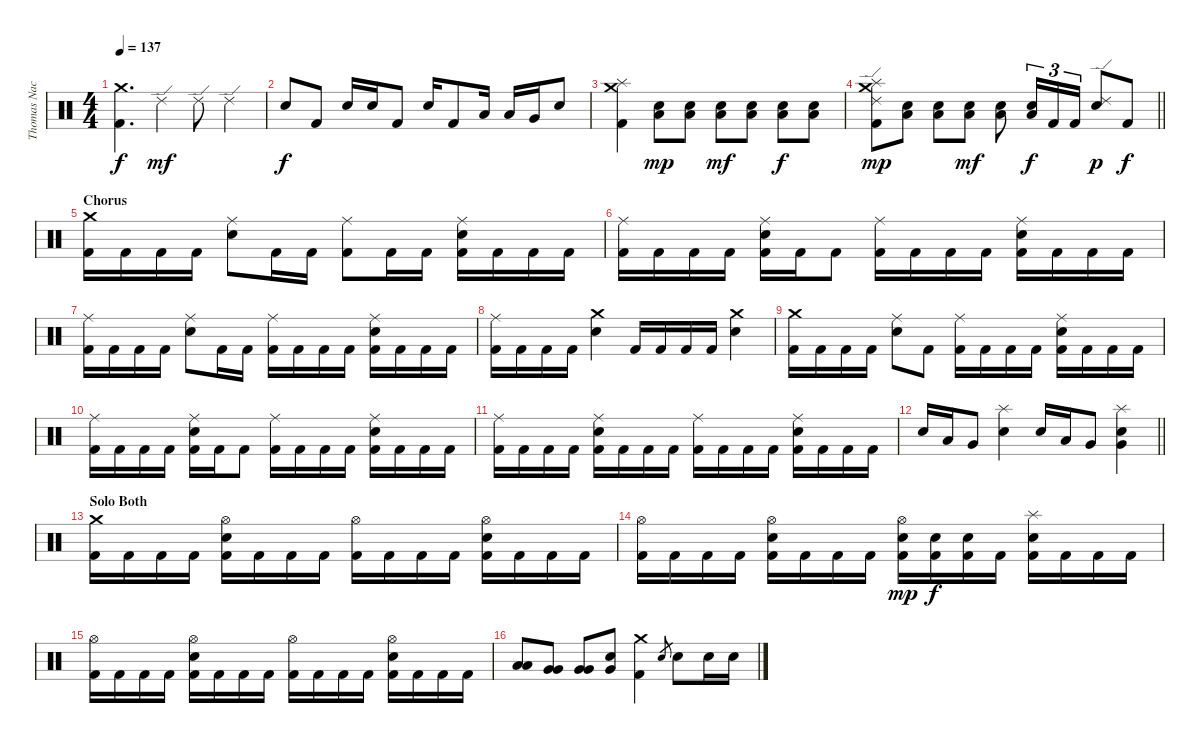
\track ("Thomas Nack" "Thomas Nac") {instrument percussion}
\staff {score}
\articulation defaults
\ts (4 4)
\tempo 137
\clef neutral
\ks c
("Crash medium (hit)" "Kick (hit) 2").4{d dy f} "Ride (edge) 2".4{dy mf} "Ride (edge) 2".8 "Ride (edge) 2".4 |
"Electric Snare (hit)".8{dy f} "Kick (hit) 2".8 "Electric Snare (hit)".16 "Electric Snare (hit)".16 "Kick (hit) 2".8 "Electric Snare (hit)".16 "Kick (hit) 2".8 "Low Tom (hit)".16 "Low Tom (hit)".16 "Very Low Tom (hit)".16 "Electric Snare (hit)".8 |
("Crash medium (hit)" "Splash (hit)" "Kick (hit) 2").4 ("Electric Snare (hit)" "Low Floor Tom (hit)").8{dy mp} ("Electric Snare (hit)" "Low Floor Tom (hit)").8 ("Electric Snare (hit)" "Low Floor Tom (hit)").8{dy mf} ("Electric Snare (hit)" "Low Floor Tom (hit)").8 ("Electric Snare (hit)" "Low Floor Tom (hit)").8{dy f} ("Electric Snare (hit)" "Low Floor Tom (hit)").8 |
\barLineRight lightlight
("Crash medium (hit)" "Splash (hit)" "Ride (edge) 2" "Kick (hit) 2").8{dy mp} ("Electric Snare (hit)" "Low Floor Tom (hit)").8 ("Electric Snare (hit)" "Low Floor Tom (hit)").8 ("Electric Snare (hit)" "Low Floor Tom (hit)").8{dy mf} ("Electric Snare (hit)" "Low Floor Tom (hit)").8 ("Electric Snare (hit)" "Low Floor Tom (hit)").16{tu (3 2) dy f} "Kick (hit) 2".16{tu (3 2)} "Kick (hit) 2".16{tu (3 2)} ("Ride (edge) 2" "Electric Snare (hit)").8{dy p} "Kick (hit) 2".8{dy f} |
\section ("" "Chorus")
("Crash medium (hit)" "Kick (hit) 2").16 "Kick (hit) 2".16 "Kick (hit) 2".16 "Kick (hit) 2".16 ("Ride (middle)" "Electric Snare (hit)").8 "Kick (hit) 2".16 "Kick (hit) 2".16 ("Ride (middle)" "Kick (hit) 2").8 "Kick (hit) 2".16 "Kick (hit) 2".16 ("Ride (middle)" "Electric Snare (hit)" "Kick (hit) 2").16 "Kick (hit) 2".16 "Kick (hit) 2".16 "Kick (hit) 2".16 |
("Ride (middle)" "Kick (hit) 2").16 "Kick (hit) 2".16 "Kick (hit) 2".16 "Kick (hit) 2".16 ("Ride (middle)" "Electric Snare (hit)" "Kick (hit) 2").16 "Kick (hit) 2".16 "Kick (hit) 2".8 ("Ride (middle)" "Kick (hit) 2").16 "Kick (hit) 2".16 "Kick (hit) 2".16 "Kick (hit) 2".16 ("Ride (middle)" "Electric Snare (hit)" "Kick (hit) 2").16 "Kick (hit) 2".16 "Kick (hit) 2".16 "Kick (hit) 2".16 |
("Ride (middle)" "Kick (hit) 2").16 "Kick (hit) 2".16 "Kick (hit) 2".16 "Kick (hit) 2".16 ("Ride (middle)" "Electric Snare (hit)").8 "Kick (hit) 2".16 "Kick (hit) 2".16 ("Ride (middle)" "Kick (hit) 2").16 "Kick (hit) 2".16 "Kick (hit) 2".16 "Kick (hit) 2".16 ("Ride (middle)" "Electric Snare (hit)" "Kick (hit) 2").16 "Kick (hit) 2".16 "Kick (hit) 2".16 "Kick (hit) 2".16 |
("Ride (middle)" "Kick (hit) 2").16 "Kick (hit) 2".16 "Kick (hit) 2".16 "Kick (hit) 2".16 ("Crash medium (hit)" "Electric Snare (hit)").4 "Kick (hit) 2".16 "Kick (hit) 2".16 "Kick (hit) 2".16 "Kick (hit) 2".16 ("Crash medium (hit)" "Electric Snare (hit)").4 |
("Crash medium (hit)" "Kick (hit) 2").16 "Kick (hit) 2".16 "Kick (hit) 2".16 "Kick (hit) 2".16 ("Ride (middle)" "Electric Snare (hit)").8 "Kick (hit) 2".8 ("Ride (middle)" "Kick (hit) 2").16 "Kick (hit) 2".16 "Kick (hit) 2".16 "Kick (hit) 2".16 ("Ride (middle)" "Electric Snare (hit)" "Kick (hit) 2").16 "Kick (hit) 2".16 "Kick (hit) 2".16 "Kick (hit) 2".16 |
("Ride (middle)" "Kick (hit) 2").16 "Kick (hit) 2".16 "Kick (hit) 2".16 "Kick (hit) 2".16 ("Ride (middle)" "Electric Snare (hit)" "Kick (hit) 2").16 "Kick (hit) 2".16 "Kick (hit) 2".8 ("Ride (middle)" "Kick (hit) 2").16 "Kick (hit) 2".16 "Kick (hit) 2".16 "Kick (hit) 2".16 ("Ride (middle)" "Electric Snare (hit)" "Kick (hit) 2").16 "Kick (hit) 2".16 "Kick (hit) 2".16 "Kick (hit) 2".16 |
("Ride (middle)" "Kick (hit) 2").16 "Kick (hit) 2".16 "Kick (hit) 2".16 "Kick (hit) 2".16 ("Ride (middle)" "Electric Snare (hit)" "Kick (hit) 2").16 "Kick (hit) 2".16 "Kick (hit) 2".16 "Kick (hit) 2".16 ("Ride (middle)" "Kick (hit) 2").16 "Kick (hit) 2".16 "Kick (hit) 2".16 "Kick (hit) 2".16 ("Ride (middle)" "Electric Snare (hit)" "Kick (hit) 2").16 "Kick (hit) 2".16 "Kick (hit) 2".16 "Kick (hit) 2".16 |
\barLineRight lightlight "Electric Snare (hit)".16 "Low Tom (hit)".16 "Very Low Tom (hit)".8
("Splash (hit)" "Electric Snare (hit)").4 "Electric Snare (hit)".16 "Low Tom (hit)".16 "Very Low Tom (hit)".8 ("Splash (hit)" "Electric Snare (hit)" "Very Low Tom (hit)").4 |
\section ("" "Solo Both")
("Crash medium (hit)" "Kick (hit) 2").16 "Kick (hit) 2".16 "Kick (hit) 2".16 "Kick (hit) 2".16 ("Hi-Hat (open)" "Electric Snare (hit)" "Kick (hit) 2").16 "Kick (hit) 2".16 "Kick (hit) 2".16 "Kick (hit) 2".16 ("Hi-Hat (open)" "Kick (hit) 2").16 "Kick (hit) 2".16 "Kick (hit) 2".16 "Kick (hit) 2".16 ("Hi-Hat (open)" "Electric Snare (hit)" "Kick (hit) 2").16 "Kick (hit) 2".16 "Kick (hit) 2".16 "Kick (hit) 2".16 |
("Hi-Hat (open)" "Kick (hit) 2").16 "Kick (hit) 2".16 "Kick (hit) 2".16 "Kick (hit) 2".16 ("Hi-Hat (open)" "Electric Snare (hit)" "Kick (hit) 2").16 "Kick (hit) 2".16 "Kick (hit) 2".16 "Kick (hit) 2".16 ("Hi-Hat (open)" "Electric Snare (hit)" "Kick (hit) 2").16{dy mp} ("Electric Snare (hit)" "Kick (hit) 2").16{dy f} ("Electric Snare (hit)" "Kick (hit) 2").16 "Kick (hit) 2".16 ("Splash (hit)" "Electric Snare (hit)" "Kick (hit) 2").16 "Kick (hit) 2".16 "Kick (hit) 2".16 "Kick (hit) 2".16 |
("Hi-Hat (open)" "Kick (hit) 2").16 "Kick (hit) 2".16 "Kick (hit) 2".16 "Kick (hit) 2".16 ("Hi-Hat (open)" "Electric Snare (hit)" "Kick (hit) 2").16 "Kick (hit) 2".16 "Kick (hit) 2".16 "Kick (hit) 2".16 ("Hi-Hat (open)" "Kick (hit) 2").16 "Kick (hit) 2".16 "Kick (hit) 2".16 "Kick (hit) 2".16 ("Hi-Hat (open)" "Electric Snare (hit)" "Kick (hit) 2").16 "Kick (hit) 2".16 "Kick (hit) 2".16 "Kick (hit) 2".16 |
("Low Tom (hit)" "Low Tom (hit)").8 ("Very Low Tom (hit)" "Very Low Tom (hit)").8 ("Very Low Tom (hit)" "Very Low Tom (hit)").8 ("Very Low Tom (hit)" "Electric Snare (hit)").8 ("Crash medium (hit)" "Kick (hit) 2").4 "Electric Snare (hit)".8{gr} "Electric Snare (hit)".8 "Electric Snare (hit)".16 "Electric Snare (hit)".16
